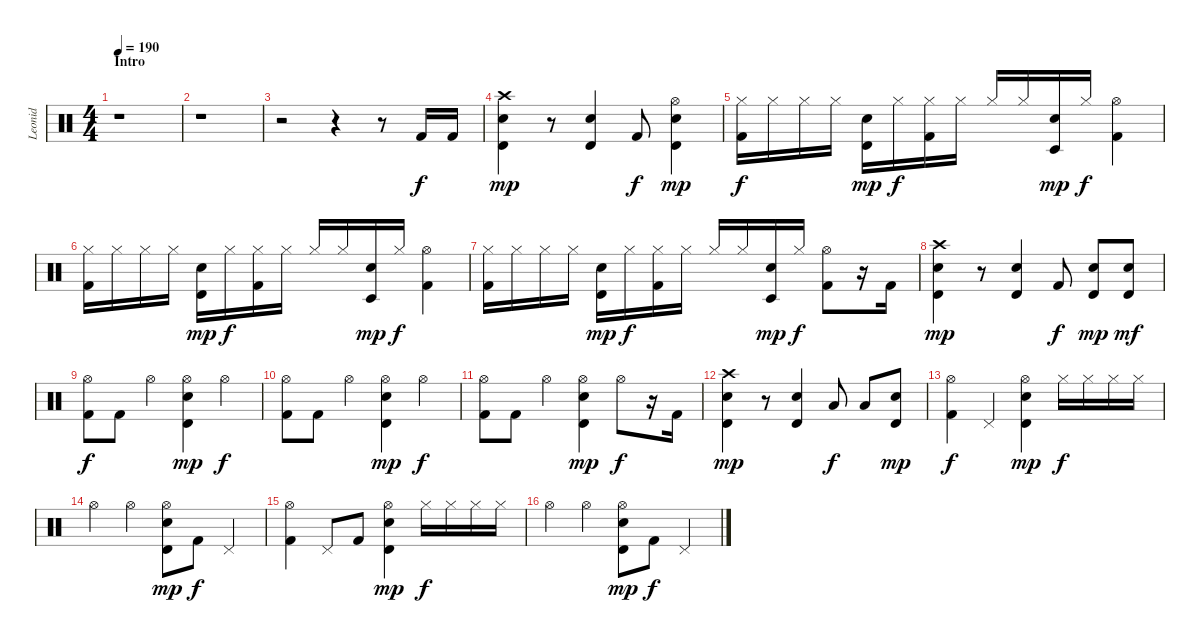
\track ("Leonid" "Leonid") {instrument percussion}
\staff {score}
\articulation defaults
\ts (4 4)
\section ("" "Intro")
\tempo 190
\clef neutral
\ks c
r.1{dy f} |
r.1 |
r.2 r.4 r.8 "Kick (hit) 2".16 "Kick (hit) 2".16 |
("Crash high (hit)" "Timbale high (hit)" "Electric Snare (hit)").4{dy mp} r.8 ("Timbale high (hit)" "Electric Snare (hit)").4 "Kick (hit) 2".8{dy f} ("Hi-Hat (open)" "Timbale high (hit)" "Electric Snare (hit)").4{dy mp} |
("Hi-Hat (closed)" "Kick (hit) 2").16{dy f} "Hi-Hat (closed)".16 "Hi-Hat (closed)".16 "Hi-Hat (closed)".16 ("Timbale high (hit)" "Electric Snare (hit)").16{dy mp} "Hi-Hat (closed)".16{dy f} ("Hi-Hat (closed)" "Kick (hit) 2").16 "Hi-Hat (closed)".16 "Hi-Hat (closed)".16 "Hi-Hat (closed)".16 ("Timbale low (hit)" "Electric Snare (hit)").16{dy mp} "Hi-Hat (closed)".16{dy f} ("Hi-Hat (open)" "Kick (hit) 2").4 |
("Hi-Hat (closed)" "Kick (hit) 2").16 "Hi-Hat (closed)".16 "Hi-Hat (closed)".16 "Hi-Hat (closed)".16 ("Timbale high (hit)" "Electric Snare (hit)").16{dy mp} "Hi-Hat (closed)".16{dy f} ("Hi-Hat (closed)" "Kick (hit) 2").16 "Hi-Hat (closed)".16 "Hi-Hat (closed)".16 "Hi-Hat (closed)".16 ("Timbale low (hit)" "Electric Snare (hit)").16{dy mp} "Hi-Hat (closed)".16{dy f} ("Hi-Hat (open)" "Kick (hit) 2").4 |
("Hi-Hat (closed)" "Kick (hit) 2").16 "Hi-Hat (closed)".16 "Hi-Hat (closed)".16 "Hi-Hat (closed)".16 ("Timbale high (hit)" "Electric Snare (hit)").16{dy mp} "Hi-Hat (closed)".16{dy f} ("Hi-Hat (closed)" "Kick (hit) 2").16 "Hi-Hat (closed)".16 "Hi-Hat (closed)".16 "Hi-Hat (closed)".16 ("Timbale low (hit)" "Electric Snare (hit)").16{dy mp} "Hi-Hat (closed)".16{dy f} ("Hi-Hat (open)" "Kick (hit) 2").8 r.16 "Kick (hit) 2".16 |
("Crash high (hit)" "Timbale high (hit)" "Electric Snare (hit)").4{dy mp} r.8 ("Timbale high (hit)" "Electric Snare (hit)").4 "Kick (hit) 2".8{dy f} ("Timbale high (hit)" "Electric Snare (hit)").8{dy mp} ("Timbale high (hit)" "Electric Snare (hit)").8{dy mf} |
("Hi-Hat (open)" "Kick (hit) 2").8{dy f} "Kick (hit) 2".8 "Hi-Hat (open)".4 ("Hi-Hat (open)" "Timbale high (hit)" "Electric Snare (hit)").4{dy mp} "Hi-Hat (open)".4{dy f} |
("Hi-Hat (open)" "Kick (hit) 2").8 "Kick (hit) 2".8 "Hi-Hat (open)".4 ("Hi-Hat (open)" "Timbale high (hit)" "Electric Snare (hit)").4{dy mp} "Hi-Hat (open)".4{dy f} |
("Hi-Hat (open)" "Kick (hit) 2").8 "Kick (hit) 2".8 "Hi-Hat (open)".4 ("Hi-Hat (open)" "Timbale high (hit)" "Electric Snare (hit)").4{dy mp} "Hi-Hat (open)".8{dy f} r.16 "Kick (hit) 2".16 |
("Crash high (hit)" "Timbale high (hit)" "Electric Snare (hit)").4{dy mp} r.8 ("Timbale high (hit)" "Electric Snare (hit)").4 "Low Tom (hit)".8{dy f} "Low Floor Tom (hit)".8 ("Timbale high (hit)" "Electric Snare (hit)").8{dy mp} |
("Hi-Hat (open)" "Kick (hit) 2").4{dy f} "Pedal Hi-Hat (hit)".4 ("Hi-Hat (open)" "Timbale high (hit)" "Electric Snare (hit)").4{dy mp} "Hi-Hat (closed)".16{dy f} "Hi-Hat (closed)".16 "Hi-Hat (closed)".16 "Hi-Hat (closed)".16 |
"Hi-Hat (open)".4 "Hi-Hat (open)".4 ("Hi-Hat (open)" "Timbale high (hit)" "Electric Snare (hit)").8{dy mp} "Kick (hit) 2".8{dy f} "Pedal Hi-Hat (hit)".4 |
("Hi-Hat (open)" "Kick (hit) 2").4 "Pedal Hi-Hat (hit)".8 "Kick (hit) 2".8 ("Hi-Hat (open)" "Timbale high (hit)" "Electric Snare (hit)").4{dy mp} "Hi-Hat (closed)".16{dy f} "Hi-Hat (closed)".16 "Hi-Hat (closed)".16 "Hi-Hat (closed)".16 |
"Hi-Hat (open)".4 "Hi-Hat (open)".4 ("Hi-Hat (open)" "Timbale high (hit)" "Electric Snare (hit)").8{dy mp} "Kick (hit) 2".8{dy f} "Pedal Hi-Hat (hit)".4
